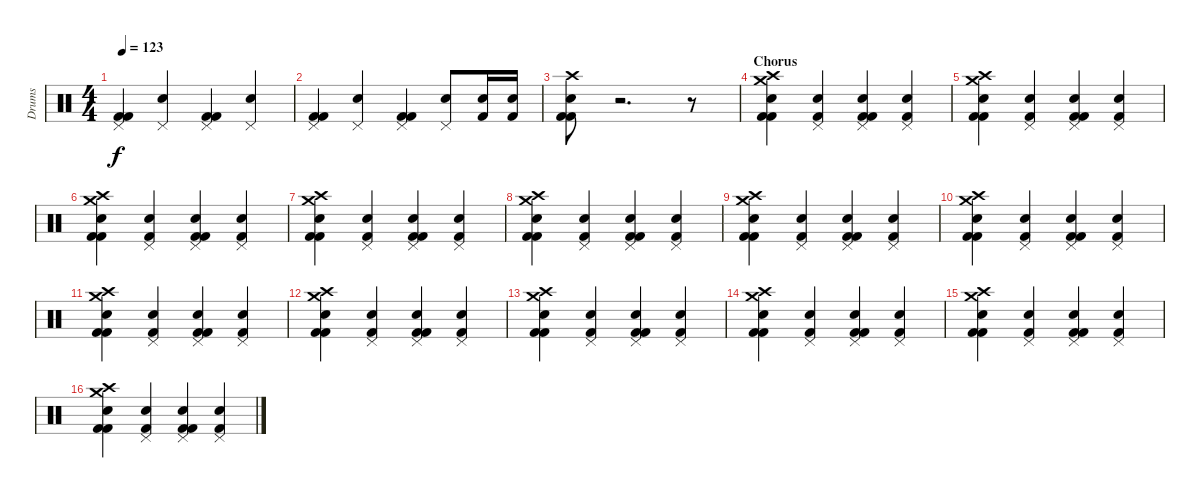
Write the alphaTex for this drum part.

\track ("Drums" "Drums") {instrument percussion}
\staff {score}
\articulation defaults
\ts (4 4)
\tempo 123
\clef neutral
\ks c
("Pedal Hi-Hat (hit)" "Kick (hit) 2" "Kick (hit) 2").4{dy f} ("Pedal Hi-Hat (hit)" "Snare (hit) 2").4 ("Pedal Hi-Hat (hit)" "Kick (hit) 2" "Kick (hit) 2").4 ("Pedal Hi-Hat (hit)" "Snare (hit) 2").4 |
("Pedal Hi-Hat (hit)" "Kick (hit) 2" "Kick (hit) 2").4 ("Pedal Hi-Hat (hit)" "Snare (hit) 2").4 ("Pedal Hi-Hat (hit)" "Kick (hit) 2" "Kick (hit) 2").4 ("Pedal Hi-Hat (hit)" "Snare (hit) 2").8 ("Snare (hit) 2" "Kick (hit) 2").16 ("Snare (hit) 2" "Kick (hit) 2").16 |
("Crash high (hit)" "Snare (hit) 2" "Kick (hit) 2" "Kick (hit) 2").8 r.2{d} r.8 |
\section ("" "Chorus")
("Crash medium (hit)" "Crash high (hit)" "Snare (hit) 2" "Kick (hit) 2" "Kick (hit) 2").4 ("Pedal Hi-Hat (hit)" "Snare (hit) 2" "Kick (hit) 2").4 ("Pedal Hi-Hat (hit)" "Snare (hit) 2" "Kick (hit) 2" "Kick (hit) 2").4 ("Pedal Hi-Hat (hit)" "Snare (hit) 2" "Kick (hit) 2").4 |
("Crash medium (hit)" "Crash high (hit)" "Snare (hit) 2" "Kick (hit) 2" "Kick (hit) 2").4 ("Pedal Hi-Hat (hit)" "Snare (hit) 2" "Kick (hit) 2").4 ("Pedal Hi-Hat (hit)" "Snare (hit) 2" "Kick (hit) 2" "Kick (hit) 2").4 ("Pedal Hi-Hat (hit)" "Snare (hit) 2" "Kick (hit) 2").4 |
("Crash medium (hit)" "Crash high (hit)" "Snare (hit) 2" "Kick (hit) 2" "Kick (hit) 2").4 ("Pedal Hi-Hat (hit)" "Snare (hit) 2" "Kick (hit) 2").4 ("Pedal Hi-Hat (hit)" "Snare (hit) 2" "Kick (hit) 2" "Kick (hit) 2").4 ("Pedal Hi-Hat (hit)" "Snare (hit) 2" "Kick (hit) 2").4 |
("Crash medium (hit)" "Crash high (hit)" "Snare (hit) 2" "Kick (hit) 2" "Kick (hit) 2").4 ("Pedal Hi-Hat (hit)" "Snare (hit) 2" "Kick (hit) 2").4 ("Pedal Hi-Hat (hit)" "Snare (hit) 2" "Kick (hit) 2" "Kick (hit) 2").4 ("Pedal Hi-Hat (hit)" "Snare (hit) 2" "Kick (hit) 2").4 |
("Crash medium (hit)" "Crash high (hit)" "Snare (hit) 2" "Kick (hit) 2" "Kick (hit) 2").4 ("Pedal Hi-Hat (hit)" "Snare (hit) 2" "Kick (hit) 2").4 ("Pedal Hi-Hat (hit)" "Snare (hit) 2" "Kick (hit) 2" "Kick (hit) 2").4 ("Pedal Hi-Hat (hit)" "Snare (hit) 2" "Kick (hit) 2").4 |
("Crash medium (hit)" "Crash high (hit)" "Snare (hit) 2" "Kick (hit) 2" "Kick (hit) 2").4 ("Pedal Hi-Hat (hit)" "Snare (hit) 2" "Kick (hit) 2").4 ("Pedal Hi-Hat (hit)" "Snare (hit) 2" "Kick (hit) 2" "Kick (hit) 2").4 ("Pedal Hi-Hat (hit)" "Snare (hit) 2" "Kick (hit) 2").4 |
("Crash medium (hit)" "Crash high (hit)" "Snare (hit) 2" "Kick (hit) 2" "Kick (hit) 2").4 ("Pedal Hi-Hat (hit)" "Snare (hit) 2" "Kick (hit) 2").4 ("Pedal Hi-Hat (hit)" "Snare (hit) 2" "Kick (hit) 2" "Kick (hit) 2").4 ("Pedal Hi-Hat (hit)" "Snare (hit) 2" "Kick (hit) 2").4 |
("Crash medium (hit)" "Crash high (hit)" "Snare (hit) 2" "Kick (hit) 2" "Kick (hit) 2").4 ("Pedal Hi-Hat (hit)" "Snare (hit) 2" "Kick (hit) 2").4 ("Pedal Hi-Hat (hit)" "Snare (hit) 2" "Kick (hit) 2" "Kick (hit) 2").4 ("Pedal Hi-Hat (hit)" "Snare (hit) 2" "Kick (hit) 2").4 |
("Crash medium (hit)" "Crash high (hit)" "Snare (hit) 2" "Kick (hit) 2" "Kick (hit) 2").4 ("Pedal Hi-Hat (hit)" "Snare (hit) 2" "Kick (hit) 2").4 ("Pedal Hi-Hat (hit)" "Snare (hit) 2" "Kick (hit) 2" "Kick (hit) 2").4 ("Pedal Hi-Hat (hit)" "Snare (hit) 2" "Kick (hit) 2").4 |
("Crash medium (hit)" "Crash high (hit)" "Snare (hit) 2" "Kick (hit) 2" "Kick (hit) 2").4 ("Pedal Hi-Hat (hit)" "Snare (hit) 2" "Kick (hit) 2").4 ("Pedal Hi-Hat (hit)" "Snare (hit) 2" "Kick (hit) 2" "Kick (hit) 2").4 ("Pedal Hi-Hat (hit)" "Snare (hit) 2" "Kick (hit) 2").4 |
("Crash medium (hit)" "Crash high (hit)" "Snare (hit) 2" "Kick (hit) 2" "Kick (hit) 2").4 ("Pedal Hi-Hat (hit)" "Snare (hit) 2" "Kick (hit) 2").4 ("Pedal Hi-Hat (hit)" "Snare (hit) 2" "Kick (hit) 2" "Kick (hit) 2").4 ("Pedal Hi-Hat (hit)" "Snare (hit) 2" "Kick (hit) 2").4 |
("Crash medium (hit)" "Crash high (hit)" "Snare (hit) 2" "Kick (hit) 2" "Kick (hit) 2").4 ("Pedal Hi-Hat (hit)" "Snare (hit) 2" "Kick (hit) 2").4 ("Pedal Hi-Hat (hit)" "Snare (hit) 2" "Kick (hit) 2" "Kick (hit) 2").4 ("Pedal Hi-Hat (hit)" "Snare (hit) 2" "Kick (hit) 2").4 |
("Crash medium (hit)" "Crash high (hit)" "Snare (hit) 2" "Kick (hit) 2" "Kick (hit) 2").4 ("Pedal Hi-Hat (hit)" "Snare (hit) 2" "Kick (hit) 2").4 ("Pedal Hi-Hat (hit)" "Snare (hit) 2" "Kick (hit) 2" "Kick (hit) 2").4 ("Pedal Hi-Hat (hit)" "Snare (hit) 2" "Kick (hit) 2").4
